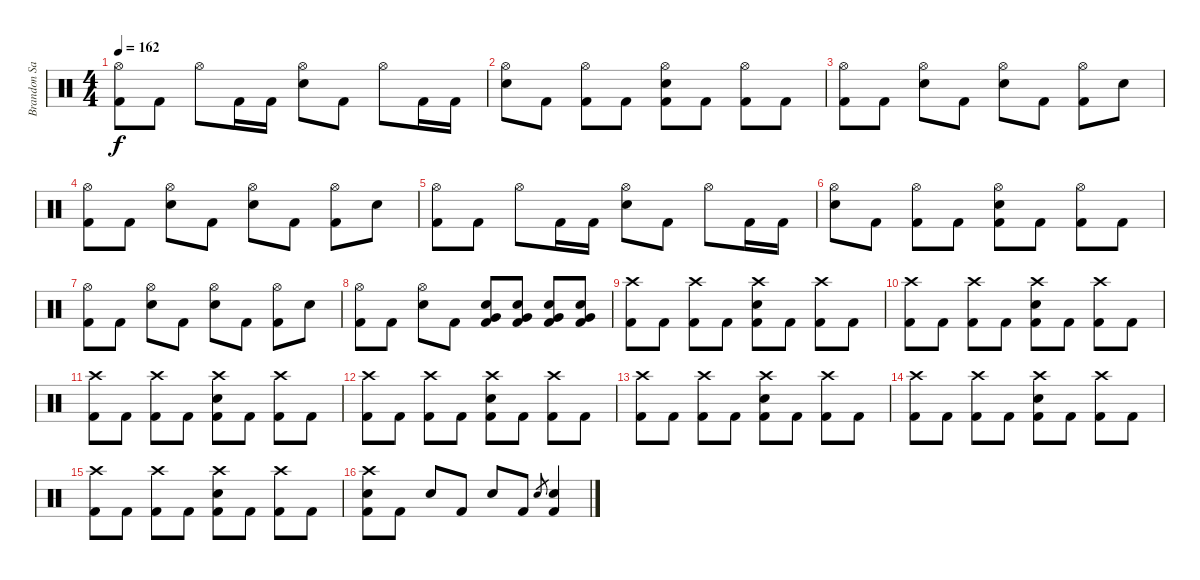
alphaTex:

\track ("Brandon Saller" "Brandon Sa") {instrument percussion}
\staff {score}
\articulation defaults
\ts (4 4)
\tempo 162
\clef neutral
\ks c
("Hi-Hat (open)" "Kick (hit) 2").8{dy f} "Kick (hit) 2".8 "Hi-Hat (open)".8 "Kick (hit) 2".16 "Kick (hit) 2".16 ("Hi-Hat (open)" "Electric Snare (hit)").8 "Kick (hit) 2".8 "Hi-Hat (open)".8 "Kick (hit) 2".16 "Kick (hit) 2".16 |
("Hi-Hat (open)" "Electric Snare (hit)").8 "Kick (hit) 2".8 ("Hi-Hat (open)" "Kick (hit) 2").8 "Kick (hit) 2".8 ("Hi-Hat (open)" "Electric Snare (hit)" "Kick (hit) 2").8 "Kick (hit) 2".8 ("Hi-Hat (open)" "Kick (hit) 2").8 "Kick (hit) 2".8 |
("Hi-Hat (open)" "Kick (hit) 2").8 "Kick (hit) 2".8 ("Hi-Hat (open)" "Electric Snare (hit)").8 "Kick (hit) 2".8 ("Hi-Hat (open)" "Electric Snare (hit)").8 "Kick (hit) 2".8 ("Hi-Hat (open)" "Kick (hit) 2").8 "Electric Snare (hit)".8 |
("Hi-Hat (open)" "Kick (hit) 2").8 "Kick (hit) 2".8 ("Hi-Hat (open)" "Electric Snare (hit)").8 "Kick (hit) 2".8 ("Hi-Hat (open)" "Electric Snare (hit)").8 "Kick (hit) 2".8 ("Hi-Hat (open)" "Kick (hit) 2").8 "Electric Snare (hit)".8 |
("Hi-Hat (open)" "Kick (hit) 2").8 "Kick (hit) 2".8 "Hi-Hat (open)".8 "Kick (hit) 2".16 "Kick (hit) 2".16 ("Hi-Hat (open)" "Electric Snare (hit)").8 "Kick (hit) 2".8 "Hi-Hat (open)".8 "Kick (hit) 2".16 "Kick (hit) 2".16 |
("Hi-Hat (open)" "Electric Snare (hit)").8 "Kick (hit) 2".8 ("Hi-Hat (open)" "Kick (hit) 2").8 "Kick (hit) 2".8 ("Hi-Hat (open)" "Electric Snare (hit)" "Kick (hit) 2").8 "Kick (hit) 2".8 ("Hi-Hat (open)" "Kick (hit) 2").8 "Kick (hit) 2".8 |
("Hi-Hat (open)" "Kick (hit) 2").8 "Kick (hit) 2".8 ("Hi-Hat (open)" "Electric Snare (hit)").8 "Kick (hit) 2".8 ("Hi-Hat (open)" "Electric Snare (hit)").8 "Kick (hit) 2".8 ("Hi-Hat (open)" "Kick (hit) 2").8 "Electric Snare (hit)".8 |
("Hi-Hat (open)" "Kick (hit) 2").8 "Kick (hit) 2".8 ("Hi-Hat (open)" "Electric Snare (hit)").8 "Kick (hit) 2".8 ("Electric Snare (hit)" "Very Low Tom (hit)" "Kick (hit) 2").8 ("Electric Snare (hit)" "Very Low Tom (hit)" "Kick (hit) 2").8 ("Electric Snare (hit)" "Very Low Tom (hit)" "Kick (hit) 2").8 ("Electric Snare (hit)" "Very Low Tom (hit)" "Kick (hit) 2").8 |
("Crash high (hit)" "Kick (hit) 2").8 "Kick (hit) 2".8 ("Crash high (hit)" "Kick (hit) 2").8 "Kick (hit) 2".8 ("Crash high (hit)" "Electric Snare (hit)" "Kick (hit) 2").8 "Kick (hit) 2".8 ("Crash high (hit)" "Kick (hit) 2").8 "Kick (hit) 2".8 |
("Crash high (hit)" "Kick (hit) 2").8 "Kick (hit) 2".8 ("Crash high (hit)" "Kick (hit) 2").8 "Kick (hit) 2".8 ("Crash high (hit)" "Electric Snare (hit)" "Kick (hit) 2").8 "Kick (hit) 2".8 ("Crash high (hit)" "Kick (hit) 2").8 "Kick (hit) 2".8 |
("Crash high (hit)" "Kick (hit) 2").8 "Kick (hit) 2".8 ("Crash high (hit)" "Kick (hit) 2").8 "Kick (hit) 2".8 ("Crash high (hit)" "Electric Snare (hit)" "Kick (hit) 2").8 "Kick (hit) 2".8 ("Crash high (hit)" "Kick (hit) 2").8 "Kick (hit) 2".8 |
("Crash high (hit)" "Kick (hit) 2").8 "Kick (hit) 2".8 ("Crash high (hit)" "Kick (hit) 2").8 "Kick (hit) 2".8 ("Crash high (hit)" "Electric Snare (hit)" "Kick (hit) 2").8 "Kick (hit) 2".8 ("Crash high (hit)" "Kick (hit) 2").8 "Kick (hit) 2".8 |
("Crash high (hit)" "Kick (hit) 2").8 "Kick (hit) 2".8 ("Crash high (hit)" "Kick (hit) 2").8 "Kick (hit) 2".8 ("Crash high (hit)" "Electric Snare (hit)" "Kick (hit) 2").8 "Kick (hit) 2".8 ("Crash high (hit)" "Kick (hit) 2").8 "Kick (hit) 2".8 |
("Crash high (hit)" "Kick (hit) 2").8 "Kick (hit) 2".8 ("Crash high (hit)" "Kick (hit) 2").8 "Kick (hit) 2".8 ("Crash high (hit)" "Electric Snare (hit)" "Kick (hit) 2").8 "Kick (hit) 2".8 ("Crash high (hit)" "Kick (hit) 2").8 "Kick (hit) 2".8 |
("Crash high (hit)" "Kick (hit) 2").8 "Kick (hit) 2".8 ("Crash high (hit)" "Kick (hit) 2").8 "Kick (hit) 2".8 ("Crash high (hit)" "Electric Snare (hit)" "Kick (hit) 2").8 "Kick (hit) 2".8 ("Crash high (hit)" "Kick (hit) 2").8 "Kick (hit) 2".8 |
("Crash high (hit)" "Electric Snare (hit)" "Kick (hit) 2").8 "Kick (hit) 2".8 "Electric Snare (hit)".8 "Kick (hit) 2".8 "Electric Snare (hit)".8 "Kick (hit) 2".8 "Electric Snare (hit)".8{gr} ("Electric Snare (hit)" "Kick (hit) 2").4
